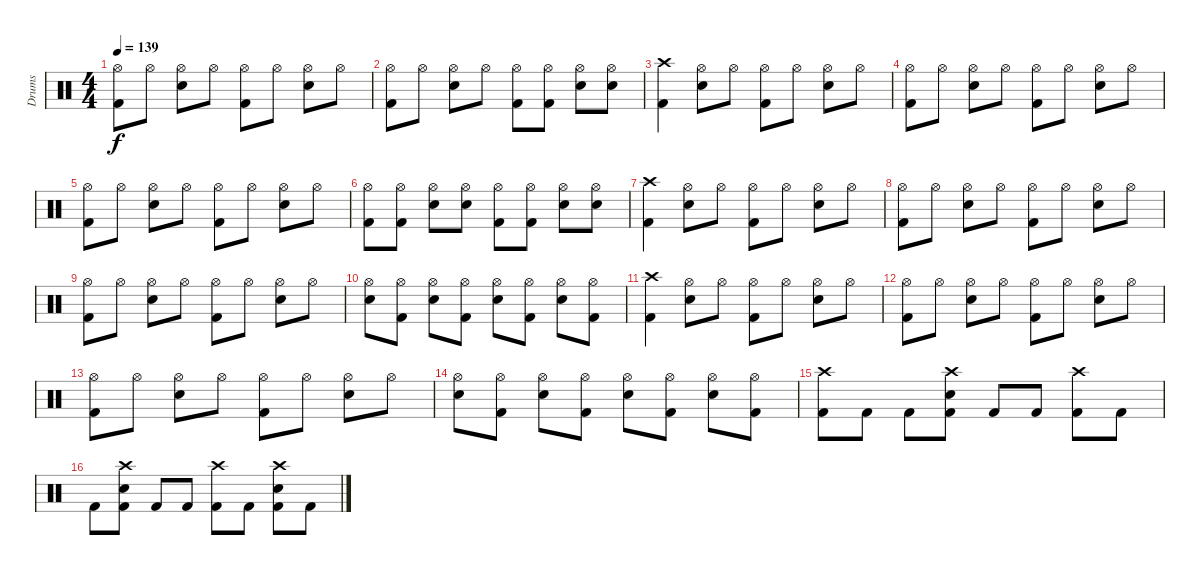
\track ("Drums" "Drums") {instrument percussion}
\staff {score}
\articulation defaults
\ts (4 4)
\tempo 139
\clef neutral
\ks c
("Hi-Hat (open)" "Kick (hit) 2").8{dy f} "Hi-Hat (open)".8 ("Hi-Hat (open)" "Electric Snare (hit)").8 "Hi-Hat (open)".8 ("Hi-Hat (open)" "Kick (hit) 2").8 "Hi-Hat (open)".8 ("Hi-Hat (open)" "Electric Snare (hit)").8 "Hi-Hat (open)".8 |
("Hi-Hat (open)" "Kick (hit) 2").8 "Hi-Hat (open)".8 ("Hi-Hat (open)" "Electric Snare (hit)").8 "Hi-Hat (open)".8 ("Hi-Hat (open)" "Kick (hit) 2").8 ("Hi-Hat (open)" "Kick (hit) 2").8 ("Hi-Hat (open)" "Electric Snare (hit)").8 ("Hi-Hat (open)" "Electric Snare (hit)").8 |
("Crash high (hit)" "Kick (hit) 2").4 ("Hi-Hat (open)" "Electric Snare (hit)").8 "Hi-Hat (open)".8 ("Hi-Hat (open)" "Kick (hit) 2").8 "Hi-Hat (open)".8 ("Hi-Hat (open)" "Electric Snare (hit)").8 "Hi-Hat (open)".8 |
("Hi-Hat (open)" "Kick (hit) 2").8 "Hi-Hat (open)".8 ("Hi-Hat (open)" "Electric Snare (hit)").8 "Hi-Hat (open)".8 ("Hi-Hat (open)" "Kick (hit) 2").8 "Hi-Hat (open)".8 ("Hi-Hat (open)" "Electric Snare (hit)").8 "Hi-Hat (open)".8 |
("Hi-Hat (open)" "Kick (hit) 2").8 "Hi-Hat (open)".8 ("Hi-Hat (open)" "Electric Snare (hit)").8 "Hi-Hat (open)".8 ("Hi-Hat (open)" "Kick (hit) 2").8 "Hi-Hat (open)".8 ("Hi-Hat (open)" "Electric Snare (hit)").8 "Hi-Hat (open)".8 |
("Hi-Hat (open)" "Kick (hit) 2").8 ("Hi-Hat (open)" "Kick (hit) 2").8 ("Hi-Hat (open)" "Electric Snare (hit)").8 ("Hi-Hat (open)" "Electric Snare (hit)").8 ("Hi-Hat (open)" "Kick (hit) 2").8 ("Hi-Hat (open)" "Kick (hit) 2").8 ("Hi-Hat (open)" "Electric Snare (hit)").8 ("Hi-Hat (open)" "Electric Snare (hit)").8 |
("Crash high (hit)" "Kick (hit) 2").4 ("Hi-Hat (open)" "Electric Snare (hit)").8 "Hi-Hat (open)".8 ("Hi-Hat (open)" "Kick (hit) 2").8 "Hi-Hat (open)".8 ("Hi-Hat (open)" "Electric Snare (hit)").8 "Hi-Hat (open)".8 |
("Hi-Hat (open)" "Kick (hit) 2").8 "Hi-Hat (open)".8 ("Hi-Hat (open)" "Electric Snare (hit)").8 "Hi-Hat (open)".8 ("Hi-Hat (open)" "Kick (hit) 2").8 "Hi-Hat (open)".8 ("Hi-Hat (open)" "Electric Snare (hit)").8 "Hi-Hat (open)".8 |
("Hi-Hat (open)" "Kick (hit) 2").8 "Hi-Hat (open)".8 ("Hi-Hat (open)" "Electric Snare (hit)").8 "Hi-Hat (open)".8 ("Hi-Hat (open)" "Kick (hit) 2").8 "Hi-Hat (open)".8 ("Hi-Hat (open)" "Electric Snare (hit)").8 "Hi-Hat (open)".8 |
("Hi-Hat (open)" "Electric Snare (hit)").8 ("Hi-Hat (open)" "Kick (hit) 2").8 ("Hi-Hat (open)" "Electric Snare (hit)").8 ("Hi-Hat (open)" "Kick (hit) 2").8 ("Hi-Hat (open)" "Electric Snare (hit)").8 ("Hi-Hat (open)" "Kick (hit) 2").8 ("Hi-Hat (open)" "Electric Snare (hit)").8 ("Hi-Hat (open)" "Kick (hit) 2").8 |
("Crash high (hit)" "Kick (hit) 2").4 ("Hi-Hat (open)" "Electric Snare (hit)").8 "Hi-Hat (open)".8 ("Hi-Hat (open)" "Kick (hit) 2").8 "Hi-Hat (open)".8 ("Hi-Hat (open)" "Electric Snare (hit)").8 "Hi-Hat (open)".8 |
("Hi-Hat (open)" "Kick (hit) 2").8 "Hi-Hat (open)".8 ("Hi-Hat (open)" "Electric Snare (hit)").8 "Hi-Hat (open)".8 ("Hi-Hat (open)" "Kick (hit) 2").8 "Hi-Hat (open)".8 ("Hi-Hat (open)" "Electric Snare (hit)").8 "Hi-Hat (open)".8 |
("Hi-Hat (open)" "Kick (hit) 2").8 "Hi-Hat (open)".8 ("Hi-Hat (open)" "Electric Snare (hit)").8 "Hi-Hat (open)".8 ("Hi-Hat (open)" "Kick (hit) 2").8 "Hi-Hat (open)".8 ("Hi-Hat (open)" "Electric Snare (hit)").8 "Hi-Hat (open)".8 |
("Hi-Hat (open)" "Electric Snare (hit)").8 ("Hi-Hat (open)" "Kick (hit) 2").8 ("Hi-Hat (open)" "Electric Snare (hit)").8 ("Hi-Hat (open)" "Kick (hit) 2").8 ("Hi-Hat (open)" "Electric Snare (hit)").8 ("Hi-Hat (open)" "Kick (hit) 2").8 ("Hi-Hat (open)" "Electric Snare (hit)").8 ("Hi-Hat (open)" "Kick (hit) 2").8 |
("Crash high (hit)" "Kick (hit) 2").8 "Kick (hit) 2".8 "Kick (hit) 2".8 ("Crash high (hit)" "Kick (hit) 2" "Electric Snare (hit)").8 "Kick (hit) 2".8 "Kick (hit) 2".8 ("Crash high (hit)" "Kick (hit) 2").8 "Kick (hit) 2".8 |
"Kick (hit) 2".8 ("Crash high (hit)" "Kick (hit) 2" "Electric Snare (hit)").8 "Kick (hit) 2".8 "Kick (hit) 2".8 ("Crash high (hit)" "Kick (hit) 2").8 "Kick (hit) 2".8 ("Crash high (hit)" "Kick (hit) 2" "Electric Snare (hit)").8 "Kick (hit) 2".8
